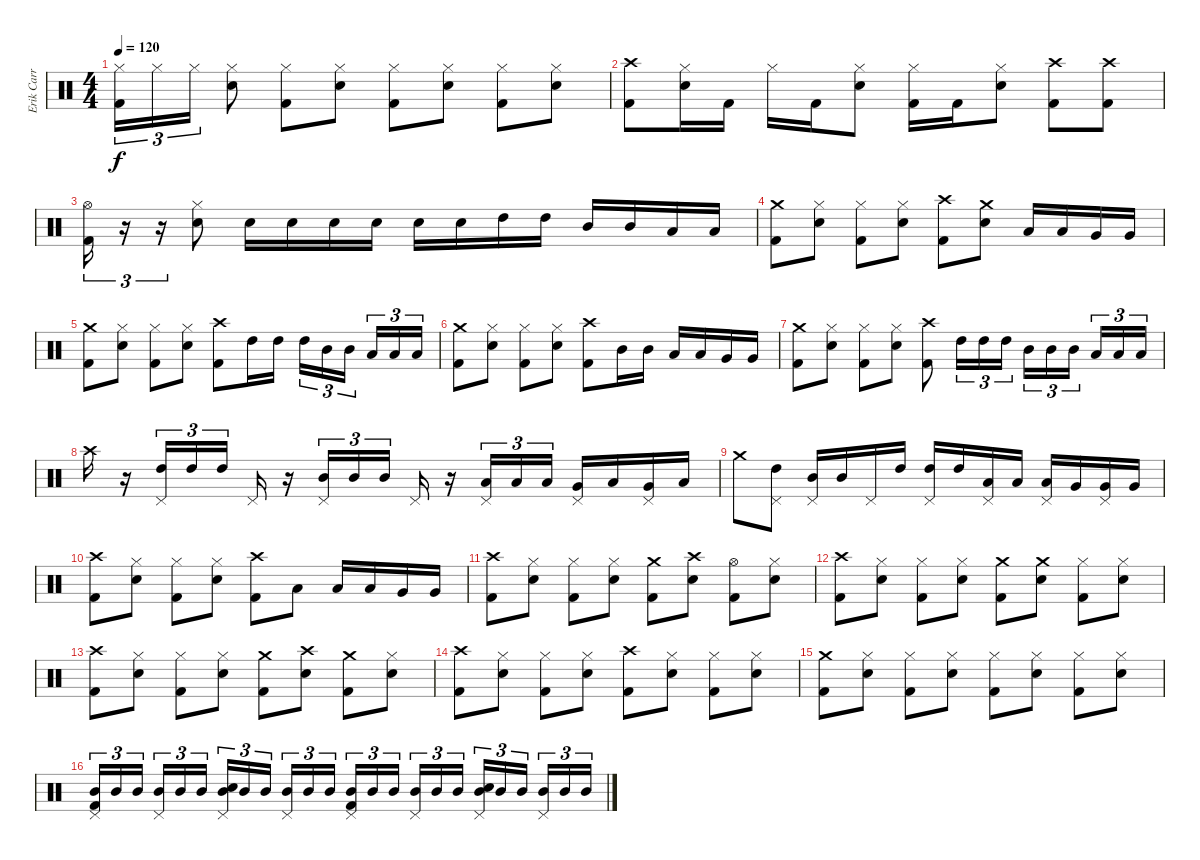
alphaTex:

\track ("Erik Carr / Drums" "Erik Carr ") {instrument percussion}
\staff {score}
\articulation defaults
\ts (4 4)
\tempo 120
\clef neutral
\ks c
("Hi-Hat (closed)" "Kick (hit) 2").16{tu (3 2) dy f} "Hi-Hat (closed)".16{tu (3 2)} "Hi-Hat (closed)".16{tu (3 2)} ("Hi-Hat (closed)" "Electric Snare (hit)").8 ("Hi-Hat (closed)" "Kick (hit) 2").8 ("Hi-Hat (closed)" "Electric Snare (hit)").8 ("Hi-Hat (closed)" "Kick (hit) 2").8 ("Hi-Hat (closed)" "Electric Snare (hit)").8 ("Hi-Hat (closed)" "Kick (hit) 2").8 ("Hi-Hat (closed)" "Electric Snare (hit)").8 |
("Crash high (hit)" "Kick (hit) 2").8 ("Hi-Hat (closed)" "Electric Snare (hit)").16 "Kick (hit) 2".16 "Hi-Hat (closed)".16 "Kick (hit) 2".16 ("Hi-Hat (closed)" "Electric Snare (hit)").8 ("Hi-Hat (closed)" "Kick (hit) 2").16 "Kick (hit) 2".16 ("Hi-Hat (closed)" "Electric Snare (hit)").8 ("Crash high (hit)" "Kick (hit) 2").8 ("Crash high (hit)" "Kick (hit) 2").8 |
("Hi-Hat (open)" "Kick (hit) 2").16{tu (3 2)} r.16{tu (3 2)} r.16{tu (3 2)} ("Hi-Hat (closed)" "Electric Snare (hit)").8 "Electric Snare (hit)".16 "Electric Snare (hit)".16 "Electric Snare (hit)".16 "Electric Snare (hit)".16 "Electric Snare (hit)".16 "Electric Snare (hit)".16 "High Tom (hit)".16 "High Tom (hit)".16 "Mid Tom (hit)".16 "Mid Tom (hit)".16 "Low Tom (hit)".16 "Low Tom (hit)".16 |
("Crash medium (hit)" "Kick (hit) 2").8 ("Electric Snare (hit)" "Hi-Hat (closed)").8 ("Kick (hit) 2" "Hi-Hat (closed)").8 ("Electric Snare (hit)" "Hi-Hat (closed)").8 ("Crash high (hit)" "Kick (hit) 2").8 ("Electric Snare (hit)" "Crash medium (hit)").8 "Low Tom (hit)".16 "Low Tom (hit)".16 "Very Low Tom (hit)".16 "Very Low Tom (hit)".16 |
("Kick (hit) 2" "Crash medium (hit)").8 ("Electric Snare (hit)" "Hi-Hat (closed)").8 ("Kick (hit) 2" "Hi-Hat (closed)").8 ("Electric Snare (hit)" "Hi-Hat (closed)").8 ("Kick (hit) 2" "Crash high (hit)").8 "High Tom (hit)".16 "High Tom (hit)".16 "High Tom (hit)".16{tu (3 2)} "Mid Tom (hit)".16{tu (3 2)} "Mid Tom (hit)".16{tu (3 2)} "Low Tom (hit)".16{tu (3 2)} "Low Tom (hit)".16{tu (3 2)} "Low Tom (hit)".16{tu (3 2)} |
("Crash medium (hit)" "Kick (hit) 2").8 ("Electric Snare (hit)" "Hi-Hat (closed)").8 ("Kick (hit) 2" "Hi-Hat (closed)").8 ("Electric Snare (hit)" "Hi-Hat (closed)").8 ("Crash high (hit)" "Kick (hit) 2").8 "Mid Tom (hit)".16 "Mid Tom (hit)".16 "Low Tom (hit)".16 "Low Tom (hit)".16 "Very Low Tom (hit)".16 "Very Low Tom (hit)".16 |
("Kick (hit) 2" "Crash medium (hit)").8 ("Electric Snare (hit)" "Hi-Hat (closed)").8 ("Kick (hit) 2" "Hi-Hat (closed)").8 ("Electric Snare (hit)" "Hi-Hat (closed)").8 ("Kick (hit) 2" "Crash high (hit)").8 "High Tom (hit)".16{tu (3 2)} "High Tom (hit)".16{tu (3 2)} "High Tom (hit)".16{tu (3 2)} "Mid Tom (hit)".16{tu (3 2)} "Mid Tom (hit)".16{tu (3 2)} "Mid Tom (hit)".16{tu (3 2)} "Low Tom (hit)".16{tu (3 2)} "Low Tom (hit)".16{tu (3 2)} "Low Tom (hit)".16{tu (3 2)} |
"Crash high (hit)".16 r.16 ("Pedal Hi-Hat (hit)" "High Tom (hit)").16{tu (3 2)} "High Tom (hit)".16{tu (3 2)} "High Tom (hit)".16{tu (3 2)} "Pedal Hi-Hat (hit)".16 r.16 ("Pedal Hi-Hat (hit)" "Mid Tom (hit)").16{tu (3 2)} "Mid Tom (hit)".16{tu (3 2)} "Mid Tom (hit)".16{tu (3 2)} "Pedal Hi-Hat (hit)".16 r.16 ("Pedal Hi-Hat (hit)" "Low Tom (hit)").16{tu (3 2)} "Low Tom (hit)".16{tu (3 2)} "Low Tom (hit)".16{tu (3 2)} ("Pedal Hi-Hat (hit)" "Very Low Tom (hit)").16 "Low Tom (hit)".16 ("Pedal Hi-Hat (hit)" "Very Low Tom (hit)").16 "Low Tom (hit)".16 |
"Crash medium (hit)".8 ("Pedal Hi-Hat (hit)" "High Tom (hit)").8 ("Pedal Hi-Hat (hit)" "Mid Tom (hit)").16 "Mid Tom (hit)".16 "Pedal Hi-Hat (hit)".16 "High Tom (hit)".16 ("Pedal Hi-Hat (hit)" "High Tom (hit)").16 "High Tom (hit)".16 ("Pedal Hi-Hat (hit)" "Low Tom (hit)").16 "Low Tom (hit)".16 ("Pedal Hi-Hat (hit)" "Low Tom (hit)").16 "Very Low Tom (hit)".16 ("Pedal Hi-Hat (hit)" "Very Low Tom (hit)").16 "Very Low Tom (hit)".16 |
("Kick (hit) 2" "Crash high (hit)").8 ("Electric Snare (hit)" "Hi-Hat (closed)").8 ("Kick (hit) 2" "Hi-Hat (closed)").8 ("Electric Snare (hit)" "Hi-Hat (closed)").8 ("Kick (hit) 2" "Crash high (hit)").8 "Low Tom (hit)".8 "Low Tom (hit)".16 "Low Tom (hit)".16 "Very Low Tom (hit)".16 "Very Low Tom (hit)".16 |
("Kick (hit) 2" "Crash high (hit)").8 ("Electric Snare (hit)" "Hi-Hat (closed)").8 ("Kick (hit) 2" "Hi-Hat (closed)").8 ("Electric Snare (hit)" "Hi-Hat (closed)").8 ("Kick (hit) 2" "Crash medium (hit)").8 ("Electric Snare (hit)" "Crash high (hit)").8 ("Kick (hit) 2" "Hi-Hat (open)").8 ("Electric Snare (hit)" "Hi-Hat (closed)").8 |
("Kick (hit) 2" "Crash high (hit)").8 ("Electric Snare (hit)" "Hi-Hat (closed)").8 ("Kick (hit) 2" "Hi-Hat (closed)").8 ("Electric Snare (hit)" "Hi-Hat (closed)").8 ("Kick (hit) 2" "Crash medium (hit)").8 ("Electric Snare (hit)" "Crash medium (hit)").8 ("Kick (hit) 2" "Hi-Hat (closed)").8 ("Electric Snare (hit)" "Hi-Hat (closed)").8 |
("Kick (hit) 2" "Crash high (hit)").8 ("Electric Snare (hit)" "Hi-Hat (closed)").8 ("Kick (hit) 2" "Hi-Hat (closed)").8 ("Electric Snare (hit)" "Hi-Hat (closed)").8 ("Kick (hit) 2" "Crash medium (hit)").8 ("Electric Snare (hit)" "Crash high (hit)").8 ("Kick (hit) 2" "Crash medium (hit)").8 ("Electric Snare (hit)" "Hi-Hat (closed)").8 |
("Kick (hit) 2" "Crash high (hit)").8 ("Electric Snare (hit)" "Hi-Hat (closed)").8 ("Kick (hit) 2" "Hi-Hat (closed)").8 ("Electric Snare (hit)" "Hi-Hat (closed)").8 ("Kick (hit) 2" "Crash high (hit)").8 ("Electric Snare (hit)" "Hi-Hat (closed)").8 ("Kick (hit) 2" "Hi-Hat (closed)").8 ("Electric Snare (hit)" "Hi-Hat (closed)").8 |
("Kick (hit) 2" "Crash medium (hit)").8 ("Electric Snare (hit)" "Hi-Hat (closed)").8 ("Kick (hit) 2" "Hi-Hat (closed)").8 ("Electric Snare (hit)" "Hi-Hat (closed)").8 ("Kick (hit) 2" "Hi-Hat (closed)").8 ("Electric Snare (hit)" "Hi-Hat (closed)").8 ("Kick (hit) 2" "Hi-Hat (closed)").8 ("Electric Snare (hit)" "Hi-Hat (closed)").8 |
("Pedal Hi-Hat (hit)" "Mid Tom (hit)" "Kick (hit) 2").16{tu (3 2)} "Mid Tom (hit)".16{tu (3 2)} "Mid Tom (hit)".16{tu (3 2)} ("Pedal Hi-Hat (hit)" "Mid Tom (hit)").16{tu (3 2)} "Mid Tom (hit)".16{tu (3 2)} "Mid Tom (hit)".16{tu (3 2)} ("Pedal Hi-Hat (hit)" "Mid Tom (hit)" "Electric Snare (hit)").16{tu (3 2)} "Mid Tom (hit)".16{tu (3 2)} "Mid Tom (hit)".16{tu (3 2)} ("Pedal Hi-Hat (hit)" "Mid Tom (hit)").16{tu (3 2)} "Mid Tom (hit)".16{tu (3 2)} "Mid Tom (hit)".16{tu (3 2)} ("Pedal Hi-Hat (hit)" "Mid Tom (hit)" "Kick (hit) 2").16{tu (3 2)} "Mid Tom (hit)".16{tu (3 2)} "Mid Tom (hit)".16{tu (3 2)} ("Pedal Hi-Hat (hit)" "Mid Tom (hit)").16{tu (3 2)} "Mid Tom (hit)".16{tu (3 2)} "Mid Tom (hit)".16{tu (3 2)} ("Pedal Hi-Hat (hit)" "Mid Tom (hit)" "Electric Snare (hit)").16{tu (3 2)} "Mid Tom (hit)".16{tu (3 2)} "Mid Tom (hit)".16{tu (3 2)} ("Pedal Hi-Hat (hit)" "Mid Tom (hit)").16{tu (3 2)} "Mid Tom (hit)".16{tu (3 2)} "Mid Tom (hit)".16{tu (3 2)}
